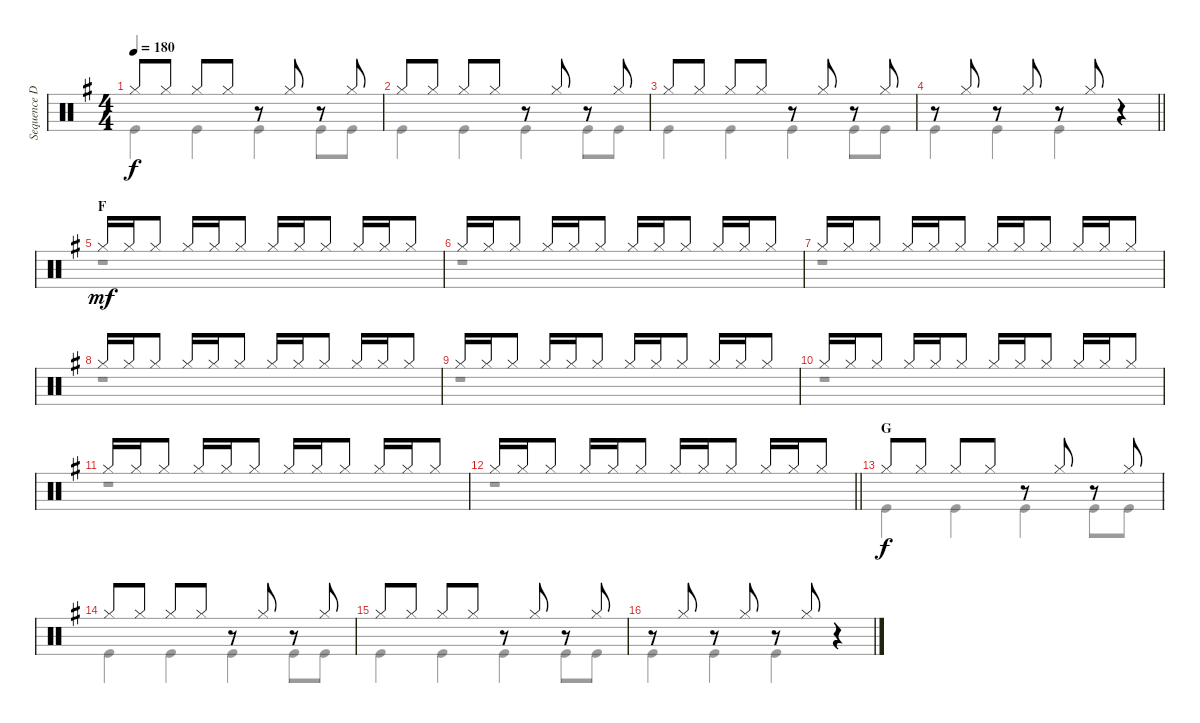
\track ("Sequence Drums" "Sequence D") {instrument percussion}
\staff {score}
\articulation defaults
\voice
\ts (4 4)
\tempo 180
\clef neutral
\ks g "Hi-Hat (closed)".8{dy f} "Hi-Hat (closed)".8 "Hi-Hat (closed)".8 "Hi-Hat (closed)".8
r.8 "Hi-Hat (closed)".8 r.8 "Hi-Hat (closed)".8 |
"Hi-Hat (closed)".8 "Hi-Hat (closed)".8 "Hi-Hat (closed)".8 "Hi-Hat (closed)".8 r.8 "Hi-Hat (closed)".8 r.8 "Hi-Hat (closed)".8 |
"Hi-Hat (closed)".8 "Hi-Hat (closed)".8 "Hi-Hat (closed)".8 "Hi-Hat (closed)".8 r.8 "Hi-Hat (closed)".8 r.8 "Hi-Hat (closed)".8 |
\barLineRight lightlight
r.8 "Hi-Hat (closed)".8 r.8 "Hi-Hat (closed)".8 r.8 "Hi-Hat (closed)".8 r.4 |
\section ("" "F")
"Hi-Hat (closed)".16{dy mf} "Hi-Hat (closed)".16 "Hi-Hat (closed)".8 "Hi-Hat (closed)".16 "Hi-Hat (closed)".16 "Hi-Hat (closed)".8 "Hi-Hat (closed)".16 "Hi-Hat (closed)".16 "Hi-Hat (closed)".8 "Hi-Hat (closed)".16 "Hi-Hat (closed)".16 "Hi-Hat (closed)".8 |
"Hi-Hat (closed)".16 "Hi-Hat (closed)".16 "Hi-Hat (closed)".8 "Hi-Hat (closed)".16 "Hi-Hat (closed)".16 "Hi-Hat (closed)".8 "Hi-Hat (closed)".16 "Hi-Hat (closed)".16 "Hi-Hat (closed)".8 "Hi-Hat (closed)".16 "Hi-Hat (closed)".16 "Hi-Hat (closed)".8 |
"Hi-Hat (closed)".16 "Hi-Hat (closed)".16 "Hi-Hat (closed)".8 "Hi-Hat (closed)".16 "Hi-Hat (closed)".16 "Hi-Hat (closed)".8 "Hi-Hat (closed)".16 "Hi-Hat (closed)".16 "Hi-Hat (closed)".8 "Hi-Hat (closed)".16 "Hi-Hat (closed)".16 "Hi-Hat (closed)".8 |
"Hi-Hat (closed)".16 "Hi-Hat (closed)".16 "Hi-Hat (closed)".8 "Hi-Hat (closed)".16 "Hi-Hat (closed)".16 "Hi-Hat (closed)".8 "Hi-Hat (closed)".16 "Hi-Hat (closed)".16 "Hi-Hat (closed)".8 "Hi-Hat (closed)".16 "Hi-Hat (closed)".16 "Hi-Hat (closed)".8 |
"Hi-Hat (closed)".16 "Hi-Hat (closed)".16 "Hi-Hat (closed)".8 "Hi-Hat (closed)".16 "Hi-Hat (closed)".16 "Hi-Hat (closed)".8 "Hi-Hat (closed)".16 "Hi-Hat (closed)".16 "Hi-Hat (closed)".8 "Hi-Hat (closed)".16 "Hi-Hat (closed)".16 "Hi-Hat (closed)".8 |
"Hi-Hat (closed)".16 "Hi-Hat (closed)".16 "Hi-Hat (closed)".8 "Hi-Hat (closed)".16 "Hi-Hat (closed)".16 "Hi-Hat (closed)".8 "Hi-Hat (closed)".16 "Hi-Hat (closed)".16 "Hi-Hat (closed)".8 "Hi-Hat (closed)".16 "Hi-Hat (closed)".16 "Hi-Hat (closed)".8 |
"Hi-Hat (closed)".16 "Hi-Hat (closed)".16 "Hi-Hat (closed)".8 "Hi-Hat (closed)".16 "Hi-Hat (closed)".16 "Hi-Hat (closed)".8 "Hi-Hat (closed)".16 "Hi-Hat (closed)".16 "Hi-Hat (closed)".8 "Hi-Hat (closed)".16 "Hi-Hat (closed)".16 "Hi-Hat (closed)".8 |
\barLineRight lightlight "Hi-Hat (closed)".16 "Hi-Hat (closed)".16 "Hi-Hat (closed)".8 "Hi-Hat (closed)".16 "Hi-Hat (closed)".16 "Hi-Hat (closed)".8 "Hi-Hat (closed)".16 "Hi-Hat (closed)".16 "Hi-Hat (closed)".8 "Hi-Hat (closed)".16 "Hi-Hat (closed)".16 "Hi-Hat (closed)".8
|
\section ("" "G")
"Hi-Hat (closed)".8{dy f} "Hi-Hat (closed)".8 "Hi-Hat (closed)".8 "Hi-Hat (closed)".8 r.8 "Hi-Hat (closed)".8 r.8 "Hi-Hat (closed)".8 |
"Hi-Hat (closed)".8 "Hi-Hat (closed)".8 "Hi-Hat (closed)".8 "Hi-Hat (closed)".8 r.8 "Hi-Hat (closed)".8 r.8 "Hi-Hat (closed)".8 |
"Hi-Hat (closed)".8 "Hi-Hat (closed)".8 "Hi-Hat (closed)".8 "Hi-Hat (closed)".8 r.8 "Hi-Hat (closed)".8 r.8 "Hi-Hat (closed)".8 |
r.8 "Hi-Hat (closed)".8 r.8 "Hi-Hat (closed)".8 r.8 "Hi-Hat (closed)".8 r.4
\voice
\clef neutral
\ottava regular
\simile none
\ks g "Kick (hit)".4{dy f} "Kick (hit)".4 "Kick (hit)".4 "Kick (hit)".8 "Kick (hit)".8
|
"Kick (hit)".4 "Kick (hit)".4 "Kick (hit)".4 "Kick (hit)".8 "Kick (hit)".8 |
"Kick (hit)".4 "Kick (hit)".4 "Kick (hit)".4 "Kick (hit)".8 "Kick (hit)".8 |
\barLineRight lightlight "Kick (hit)".4 "Kick (hit)".4 "Kick (hit)".4
r.4 |
r.1 |
r.1 |
r.1 |
r.1 |
r.1 |
r.1 |
r.1 |
\barLineRight lightlight
r.1 |
"Kick (hit)".4 "Kick (hit)".4 "Kick (hit)".4 "Kick (hit)".8 "Kick (hit)".8 |
"Kick (hit)".4 "Kick (hit)".4 "Kick (hit)".4 "Kick (hit)".8 "Kick (hit)".8 |
"Kick (hit)".4 "Kick (hit)".4 "Kick (hit)".4 "Kick (hit)".8 "Kick (hit)".8 |
"Kick (hit)".4 "Kick (hit)".4 "Kick (hit)".4 r.4
